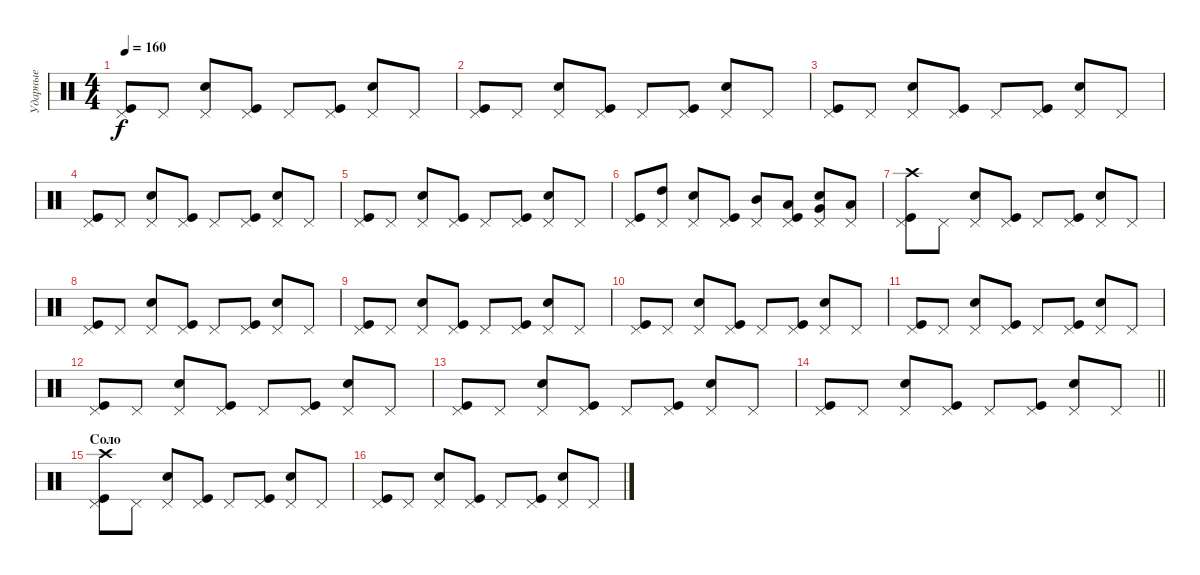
\track ("Ударные" "Ударные") {instrument percussion}
\staff {score}
\articulation defaults
\ts (4 4)
\tempo 160
\clef neutral
\ks c
("Pedal Hi-Hat (hit)" "Kick (hit)").8{dy f} "Pedal Hi-Hat (hit)".8 ("Pedal Hi-Hat (hit)" "Snare (hit) 2").8 ("Pedal Hi-Hat (hit)" "Kick (hit)").8 "Pedal Hi-Hat (hit)".8 ("Pedal Hi-Hat (hit)" "Kick (hit)").8 ("Pedal Hi-Hat (hit)" "Snare (hit) 2").8 "Pedal Hi-Hat (hit)".8 |
("Pedal Hi-Hat (hit)" "Kick (hit)").8 "Pedal Hi-Hat (hit)".8 ("Pedal Hi-Hat (hit)" "Snare (hit) 2").8 ("Pedal Hi-Hat (hit)" "Kick (hit)").8 "Pedal Hi-Hat (hit)".8 ("Pedal Hi-Hat (hit)" "Kick (hit)").8 ("Pedal Hi-Hat (hit)" "Snare (hit) 2").8 "Pedal Hi-Hat (hit)".8 |
("Pedal Hi-Hat (hit)" "Kick (hit)").8 "Pedal Hi-Hat (hit)".8 ("Pedal Hi-Hat (hit)" "Snare (hit) 2").8 ("Pedal Hi-Hat (hit)" "Kick (hit)").8 "Pedal Hi-Hat (hit)".8 ("Pedal Hi-Hat (hit)" "Kick (hit)").8 ("Pedal Hi-Hat (hit)" "Snare (hit) 2").8 "Pedal Hi-Hat (hit)".8 |
("Pedal Hi-Hat (hit)" "Kick (hit)").8 "Pedal Hi-Hat (hit)".8 ("Pedal Hi-Hat (hit)" "Snare (hit) 2").8 ("Pedal Hi-Hat (hit)" "Kick (hit)").8 "Pedal Hi-Hat (hit)".8 ("Pedal Hi-Hat (hit)" "Kick (hit)").8 ("Pedal Hi-Hat (hit)" "Snare (hit) 2").8 "Pedal Hi-Hat (hit)".8 |
("Pedal Hi-Hat (hit)" "Kick (hit)").8 "Pedal Hi-Hat (hit)".8 ("Pedal Hi-Hat (hit)" "Snare (hit) 2").8 ("Pedal Hi-Hat (hit)" "Kick (hit)").8 "Pedal Hi-Hat (hit)".8 ("Pedal Hi-Hat (hit)" "Kick (hit)").8 ("Pedal Hi-Hat (hit)" "Snare (hit) 2").8 "Pedal Hi-Hat (hit)".8 |
("Pedal Hi-Hat (hit)" "Kick (hit)").8 ("Pedal Hi-Hat (hit)" "High Tom (hit)").8 ("Pedal Hi-Hat (hit)" "Snare (hit) 2").8 ("Pedal Hi-Hat (hit)" "Kick (hit)").8 ("Pedal Hi-Hat (hit)" "Mid Tom (hit)").8 ("Pedal Hi-Hat (hit)" "Low Tom (hit)" "Kick (hit)").8 ("Pedal Hi-Hat (hit)" "Very Low Tom (hit)" "Snare (hit) 2").8 ("Pedal Hi-Hat (hit)" "Low Floor Tom (hit)").8 |
("Pedal Hi-Hat (hit)" "Crash high (hit)" "Kick (hit)").8 "Pedal Hi-Hat (hit)".8 ("Pedal Hi-Hat (hit)" "Snare (hit) 2").8 ("Pedal Hi-Hat (hit)" "Kick (hit)").8 "Pedal Hi-Hat (hit)".8 ("Pedal Hi-Hat (hit)" "Kick (hit)").8 ("Pedal Hi-Hat (hit)" "Snare (hit) 2").8 "Pedal Hi-Hat (hit)".8 |
("Pedal Hi-Hat (hit)" "Kick (hit)").8 "Pedal Hi-Hat (hit)".8 ("Pedal Hi-Hat (hit)" "Snare (hit) 2").8 ("Pedal Hi-Hat (hit)" "Kick (hit)").8 "Pedal Hi-Hat (hit)".8 ("Pedal Hi-Hat (hit)" "Kick (hit)").8 ("Pedal Hi-Hat (hit)" "Snare (hit) 2").8 "Pedal Hi-Hat (hit)".8 |
("Pedal Hi-Hat (hit)" "Kick (hit)").8 "Pedal Hi-Hat (hit)".8 ("Pedal Hi-Hat (hit)" "Snare (hit) 2").8 ("Pedal Hi-Hat (hit)" "Kick (hit)").8 "Pedal Hi-Hat (hit)".8 ("Pedal Hi-Hat (hit)" "Kick (hit)").8 ("Pedal Hi-Hat (hit)" "Snare (hit) 2").8 "Pedal Hi-Hat (hit)".8 |
("Pedal Hi-Hat (hit)" "Kick (hit)").8 "Pedal Hi-Hat (hit)".8 ("Pedal Hi-Hat (hit)" "Snare (hit) 2").8 ("Pedal Hi-Hat (hit)" "Kick (hit)").8 "Pedal Hi-Hat (hit)".8 ("Pedal Hi-Hat (hit)" "Kick (hit)").8 ("Pedal Hi-Hat (hit)" "Snare (hit) 2").8 "Pedal Hi-Hat (hit)".8 |
("Pedal Hi-Hat (hit)" "Kick (hit)").8 "Pedal Hi-Hat (hit)".8 ("Pedal Hi-Hat (hit)" "Snare (hit) 2").8 ("Pedal Hi-Hat (hit)" "Kick (hit)").8 "Pedal Hi-Hat (hit)".8 ("Pedal Hi-Hat (hit)" "Kick (hit)").8 ("Pedal Hi-Hat (hit)" "Snare (hit) 2").8 "Pedal Hi-Hat (hit)".8 |
("Pedal Hi-Hat (hit)" "Kick (hit)").8 "Pedal Hi-Hat (hit)".8 ("Pedal Hi-Hat (hit)" "Snare (hit) 2").8 ("Pedal Hi-Hat (hit)" "Kick (hit)").8 "Pedal Hi-Hat (hit)".8 ("Pedal Hi-Hat (hit)" "Kick (hit)").8 ("Pedal Hi-Hat (hit)" "Snare (hit) 2").8 "Pedal Hi-Hat (hit)".8 |
("Pedal Hi-Hat (hit)" "Kick (hit)").8 "Pedal Hi-Hat (hit)".8 ("Pedal Hi-Hat (hit)" "Snare (hit) 2").8 ("Pedal Hi-Hat (hit)" "Kick (hit)").8 "Pedal Hi-Hat (hit)".8 ("Pedal Hi-Hat (hit)" "Kick (hit)").8 ("Pedal Hi-Hat (hit)" "Snare (hit) 2").8 "Pedal Hi-Hat (hit)".8 |
\barLineRight lightlight
("Pedal Hi-Hat (hit)" "Kick (hit)").8 "Pedal Hi-Hat (hit)".8 ("Pedal Hi-Hat (hit)" "Snare (hit) 2").8 ("Pedal Hi-Hat (hit)" "Kick (hit)").8 "Pedal Hi-Hat (hit)".8 ("Pedal Hi-Hat (hit)" "Kick (hit)").8 ("Pedal Hi-Hat (hit)" "Snare (hit) 2").8 "Pedal Hi-Hat (hit)".8 |
\section ("" "Соло")
("Pedal Hi-Hat (hit)" "Crash high (hit)" "Kick (hit)").8 "Pedal Hi-Hat (hit)".8 ("Pedal Hi-Hat (hit)" "Snare (hit) 2").8 ("Pedal Hi-Hat (hit)" "Kick (hit)").8 "Pedal Hi-Hat (hit)".8 ("Pedal Hi-Hat (hit)" "Kick (hit)").8 ("Pedal Hi-Hat (hit)" "Snare (hit) 2").8 "Pedal Hi-Hat (hit)".8 |
("Pedal Hi-Hat (hit)" "Kick (hit)").8 "Pedal Hi-Hat (hit)".8 ("Pedal Hi-Hat (hit)" "Snare (hit) 2").8 ("Pedal Hi-Hat (hit)" "Kick (hit)").8 "Pedal Hi-Hat (hit)".8 ("Pedal Hi-Hat (hit)" "Kick (hit)").8 ("Pedal Hi-Hat (hit)" "Snare (hit) 2").8 "Pedal Hi-Hat (hit)".8
